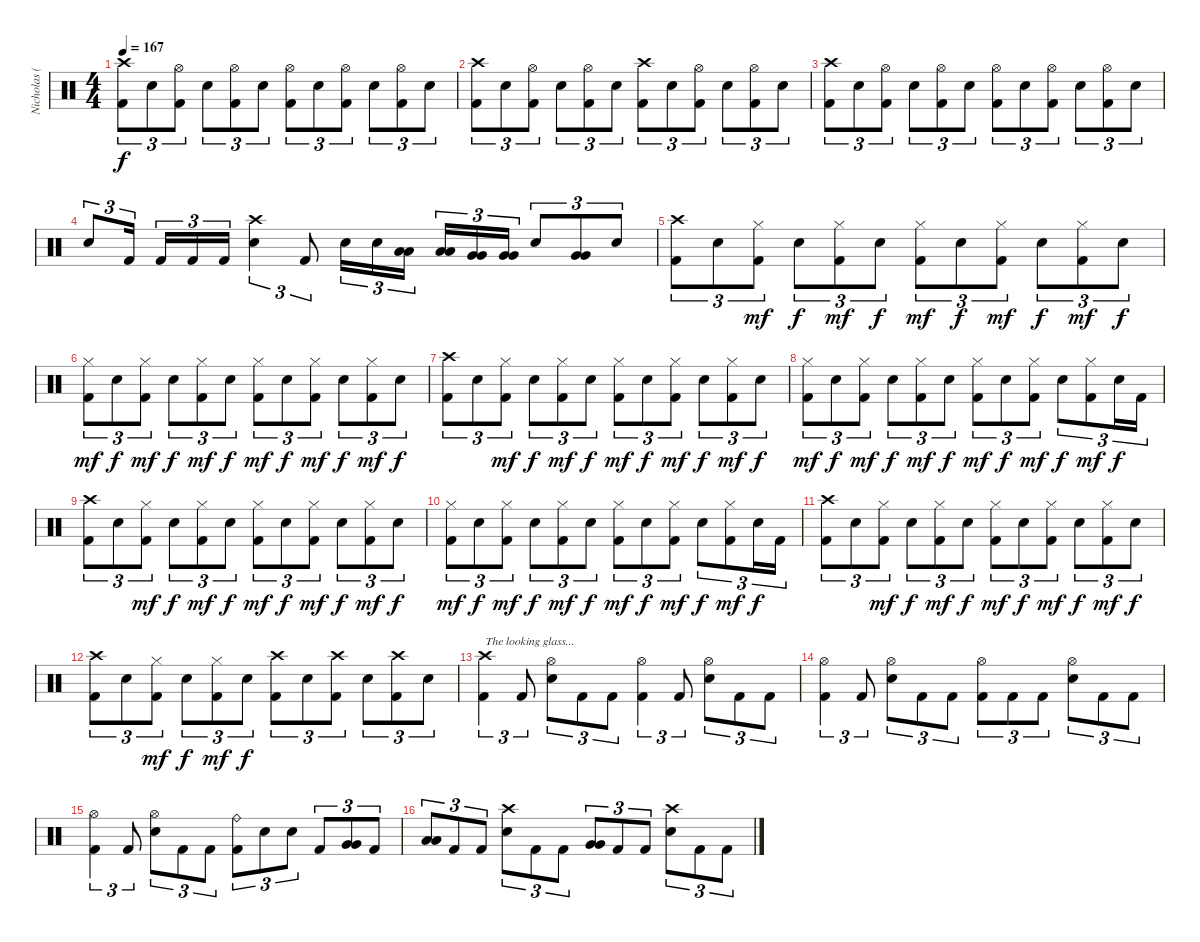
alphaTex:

\track ("Nicholas (Drums)" "Nicholas (") {instrument percussion}
\staff {score}
\articulation defaults
\ts (4 4)
\tempo 167
\clef neutral
\ks c
("Crash high (hit)" "Kick (hit) 2").8{tu (3 2) dy f} "Electric Snare (hit)".8{tu (3 2)} ("Hi-Hat (open)" "Kick (hit) 2").8{tu (3 2)} "Electric Snare (hit)".8{tu (3 2)} ("Hi-Hat (open)" "Kick (hit) 2").8{tu (3 2)} "Electric Snare (hit)".8{tu (3 2)} ("Hi-Hat (open)" "Kick (hit) 2").8{tu (3 2)} "Electric Snare (hit)".8{tu (3 2)} ("Hi-Hat (open)" "Kick (hit) 2").8{tu (3 2)} "Electric Snare (hit)".8{tu (3 2)} ("Hi-Hat (open)" "Kick (hit) 2").8{tu (3 2)} "Electric Snare (hit)".8{tu (3 2)} |
("Crash high (hit)" "Kick (hit) 2").8{tu (3 2)} "Electric Snare (hit)".8{tu (3 2)} ("Hi-Hat (open)" "Kick (hit) 2").8{tu (3 2)} "Electric Snare (hit)".8{tu (3 2)} ("Hi-Hat (open)" "Kick (hit) 2").8{tu (3 2)} "Electric Snare (hit)".8{tu (3 2)} ("Crash high (hit)" "Kick (hit) 2").8{tu (3 2)} "Electric Snare (hit)".8{tu (3 2)} ("Hi-Hat (open)" "Kick (hit) 2").8{tu (3 2)} "Electric Snare (hit)".8{tu (3 2)} ("Hi-Hat (open)" "Kick (hit) 2").8{tu (3 2)} "Electric Snare (hit)".8{tu (3 2)} |
("Crash high (hit)" "Kick (hit) 2").8{tu (3 2)} "Electric Snare (hit)".8{tu (3 2)} ("Hi-Hat (open)" "Kick (hit) 2").8{tu (3 2)} "Electric Snare (hit)".8{tu (3 2)} ("Hi-Hat (open)" "Kick (hit) 2").8{tu (3 2)} "Electric Snare (hit)".8{tu (3 2)} ("Hi-Hat (open)" "Kick (hit) 2").8{tu (3 2)} "Electric Snare (hit)".8{tu (3 2)} ("Hi-Hat (open)" "Kick (hit) 2").8{tu (3 2)} "Electric Snare (hit)".8{tu (3 2)} ("Hi-Hat (open)" "Kick (hit) 2").8{tu (3 2)} "Electric Snare (hit)".8{tu (3 2)} |
"Electric Snare (hit)".8{tu (3 2)} "Kick (hit) 2".16{tu (3 2)} "Kick (hit) 2".16{tu (3 2)} "Kick (hit) 2".16{tu (3 2)} "Kick (hit) 2".16{tu (3 2)} ("Crash high (hit)" "Electric Snare (hit)").4{tu (3 2)} "Kick (hit) 2".8{tu (3 2)} "Electric Snare (hit)".16{tu (3 2)} "Electric Snare (hit)".16{tu (3 2)} ("Low Tom (hit)" "Low Tom (hit)").16{tu (3 2)} ("Low Tom (hit)" "Low Tom (hit)").16{tu (3 2)} ("Very Low Tom (hit)" "Very Low Tom (hit)").16{tu (3 2)} ("Very Low Tom (hit)" "Very Low Tom (hit)").16{tu (3 2)} "Electric Snare (hit)".8{tu (3 2)} ("Very Low Tom (hit)" "Very Low Tom (hit)").8{tu (3 2)} "Electric Snare (hit)".8{tu (3 2)} |
("Crash high (hit)" "Kick (hit) 2").8{tu (3 2)} "Electric Snare (hit)".8{tu (3 2)} ("Hi-Hat (closed)" "Kick (hit) 2").8{tu (3 2) dy mf} "Electric Snare (hit)".8{tu (3 2) dy f} ("Hi-Hat (closed)" "Kick (hit) 2").8{tu (3 2) dy mf} "Electric Snare (hit)".8{tu (3 2) dy f} ("Hi-Hat (closed)" "Kick (hit) 2").8{tu (3 2) dy mf} "Electric Snare (hit)".8{tu (3 2) dy f} ("Hi-Hat (closed)" "Kick (hit) 2").8{tu (3 2) dy mf} "Electric Snare (hit)".8{tu (3 2) dy f} ("Hi-Hat (closed)" "Kick (hit) 2").8{tu (3 2) dy mf} "Electric Snare (hit)".8{tu (3 2) dy f} |
("Hi-Hat (closed)" "Kick (hit) 2").8{tu (3 2) dy mf} "Electric Snare (hit)".8{tu (3 2) dy f} ("Hi-Hat (closed)" "Kick (hit) 2").8{tu (3 2) dy mf} "Electric Snare (hit)".8{tu (3 2) dy f} ("Hi-Hat (closed)" "Kick (hit) 2").8{tu (3 2) dy mf} "Electric Snare (hit)".8{tu (3 2) dy f} ("Hi-Hat (closed)" "Kick (hit) 2").8{tu (3 2) dy mf} "Electric Snare (hit)".8{tu (3 2) dy f} ("Hi-Hat (closed)" "Kick (hit) 2").8{tu (3 2) dy mf} "Electric Snare (hit)".8{tu (3 2) dy f} ("Hi-Hat (closed)" "Kick (hit) 2").8{tu (3 2) dy mf} "Electric Snare (hit)".8{tu (3 2) dy f} |
("Crash high (hit)" "Kick (hit) 2").8{tu (3 2)} "Electric Snare (hit)".8{tu (3 2)} ("Hi-Hat (closed)" "Kick (hit) 2").8{tu (3 2) dy mf} "Electric Snare (hit)".8{tu (3 2) dy f} ("Hi-Hat (closed)" "Kick (hit) 2").8{tu (3 2) dy mf} "Electric Snare (hit)".8{tu (3 2) dy f} ("Hi-Hat (closed)" "Kick (hit) 2").8{tu (3 2) dy mf} "Electric Snare (hit)".8{tu (3 2) dy f} ("Hi-Hat (closed)" "Kick (hit) 2").8{tu (3 2) dy mf} "Electric Snare (hit)".8{tu (3 2) dy f} ("Hi-Hat (closed)" "Kick (hit) 2").8{tu (3 2) dy mf} "Electric Snare (hit)".8{tu (3 2) dy f} |
("Hi-Hat (closed)" "Kick (hit) 2").8{tu (3 2) dy mf} "Electric Snare (hit)".8{tu (3 2) dy f} ("Hi-Hat (closed)" "Kick (hit) 2").8{tu (3 2) dy mf} "Electric Snare (hit)".8{tu (3 2) dy f} ("Hi-Hat (closed)" "Kick (hit) 2").8{tu (3 2) dy mf} "Electric Snare (hit)".8{tu (3 2) dy f} ("Hi-Hat (closed)" "Kick (hit) 2").8{tu (3 2) dy mf} "Electric Snare (hit)".8{tu (3 2) dy f} ("Hi-Hat (closed)" "Kick (hit) 2").8{tu (3 2) dy mf} "Electric Snare (hit)".8{tu (3 2) dy f} ("Hi-Hat (closed)" "Kick (hit) 2").8{tu (3 2) dy mf} "Electric Snare (hit)".16{tu (3 2) dy f} "Kick (hit) 2".16{tu (3 2)} |
("Crash high (hit)" "Kick (hit) 2").8{tu (3 2)} "Electric Snare (hit)".8{tu (3 2)} ("Hi-Hat (closed)" "Kick (hit) 2").8{tu (3 2) dy mf} "Electric Snare (hit)".8{tu (3 2) dy f} ("Hi-Hat (closed)" "Kick (hit) 2").8{tu (3 2) dy mf} "Electric Snare (hit)".8{tu (3 2) dy f} ("Hi-Hat (closed)" "Kick (hit) 2").8{tu (3 2) dy mf} "Electric Snare (hit)".8{tu (3 2) dy f} ("Hi-Hat (closed)" "Kick (hit) 2").8{tu (3 2) dy mf} "Electric Snare (hit)".8{tu (3 2) dy f} ("Hi-Hat (closed)" "Kick (hit) 2").8{tu (3 2) dy mf} "Electric Snare (hit)".8{tu (3 2) dy f} |
("Hi-Hat (closed)" "Kick (hit) 2").8{tu (3 2) dy mf} "Electric Snare (hit)".8{tu (3 2) dy f} ("Hi-Hat (closed)" "Kick (hit) 2").8{tu (3 2) dy mf} "Electric Snare (hit)".8{tu (3 2) dy f} ("Hi-Hat (closed)" "Kick (hit) 2").8{tu (3 2) dy mf} "Electric Snare (hit)".8{tu (3 2) dy f} ("Hi-Hat (closed)" "Kick (hit) 2").8{tu (3 2) dy mf} "Electric Snare (hit)".8{tu (3 2) dy f} ("Hi-Hat (closed)" "Kick (hit) 2").8{tu (3 2) dy mf} "Electric Snare (hit)".8{tu (3 2) dy f} ("Hi-Hat (closed)" "Kick (hit) 2").8{tu (3 2) dy mf} "Electric Snare (hit)".16{tu (3 2) dy f} "Kick (hit) 2".16{tu (3 2)} |
("Crash high (hit)" "Kick (hit) 2").8{tu (3 2)} "Electric Snare (hit)".8{tu (3 2)} ("Hi-Hat (closed)" "Kick (hit) 2").8{tu (3 2) dy mf} "Electric Snare (hit)".8{tu (3 2) dy f} ("Hi-Hat (closed)" "Kick (hit) 2").8{tu (3 2) dy mf} "Electric Snare (hit)".8{tu (3 2) dy f} ("Hi-Hat (closed)" "Kick (hit) 2").8{tu (3 2) dy mf} "Electric Snare (hit)".8{tu (3 2) dy f} ("Hi-Hat (closed)" "Kick (hit) 2").8{tu (3 2) dy mf} "Electric Snare (hit)".8{tu (3 2) dy f} ("Hi-Hat (closed)" "Kick (hit) 2").8{tu (3 2) dy mf} "Electric Snare (hit)".8{tu (3 2) dy f} |
("Crash high (hit)" "Kick (hit) 2").8{tu (3 2)} "Electric Snare (hit)".8{tu (3 2)} ("Hi-Hat (closed)" "Kick (hit) 2").8{tu (3 2) dy mf} "Electric Snare (hit)".8{tu (3 2) dy f} ("Hi-Hat (closed)" "Kick (hit) 2").8{tu (3 2) dy mf} "Electric Snare (hit)".8{tu (3 2) dy f} ("Crash high (hit)" "Kick (hit) 2").8{tu (3 2)} "Electric Snare (hit)".8{tu (3 2)} ("Crash high (hit)" "Kick (hit) 2").8{tu (3 2)} "Electric Snare (hit)".8{tu (3 2)} ("Crash high (hit)" "Kick (hit) 2").8{tu (3 2)} "Electric Snare (hit)".8{tu (3 2)} |
("Crash high (hit)" "Kick (hit) 2").4{tu (3 2) txt "The looking glass..."} "Kick (hit) 2".8{tu (3 2)} ("Hi-Hat (open)" "Electric Snare (hit)").8{tu (3 2)} "Kick (hit) 2".8{tu (3 2)} "Kick (hit) 2".8{tu (3 2)} ("Hi-Hat (open)" "Kick (hit) 2").4{tu (3 2)} "Kick (hit) 2".8{tu (3 2)} ("Hi-Hat (open)" "Electric Snare (hit)").8{tu (3 2)} "Kick (hit) 2".8{tu (3 2)} "Kick (hit) 2".8{tu (3 2)} |
("Hi-Hat (open)" "Kick (hit) 2").4{tu (3 2)} "Kick (hit) 2".8{tu (3 2)} ("Hi-Hat (open)" "Electric Snare (hit)").8{tu (3 2)} "Kick (hit) 2".8{tu (3 2)} "Kick (hit) 2".8{tu (3 2)} ("Hi-Hat (open)" "Kick (hit) 2").8{tu (3 2)} "Kick (hit) 2".8{tu (3 2)} "Kick (hit) 2".8{tu (3 2)} ("Hi-Hat (open)" "Electric Snare (hit)").8{tu (3 2)} "Kick (hit) 2".8{tu (3 2)} "Kick (hit) 2".8{tu (3 2)} |
("Hi-Hat (open)" "Kick (hit) 2").4{tu (3 2)} "Kick (hit) 2".8{tu (3 2)} ("Hi-Hat (open)" "Electric Snare (hit)").8{tu (3 2)} "Kick (hit) 2".8{tu (3 2)} "Kick (hit) 2".8{tu (3 2)} ("Ride (bell)" "Kick (hit) 2").8{tu (3 2)} "Electric Snare (hit)".8{tu (3 2)} "Electric Snare (hit)".8{tu (3 2)} "Kick (hit) 2".8{tu (3 2)} ("Very Low Tom (hit)" "Very Low Tom (hit)").8{tu (3 2)} "Kick (hit) 2".8{tu (3 2)} |
("Low Tom (hit)" "Low Tom (hit)").8{tu (3 2)} "Kick (hit) 2".8{tu (3 2)} "Kick (hit) 2".8{tu (3 2)} ("Crash high (hit)" "Electric Snare (hit)").8{tu (3 2)} "Kick (hit) 2".8{tu (3 2)} "Kick (hit) 2".8{tu (3 2)} ("Very Low Tom (hit)" "Very Low Tom (hit)").8{tu (3 2)} "Kick (hit) 2".8{tu (3 2)} "Kick (hit) 2".8{tu (3 2)} ("Crash high (hit)" "Electric Snare (hit)").8{tu (3 2)} "Kick (hit) 2".8{tu (3 2)} "Kick (hit) 2".8{tu (3 2)}
